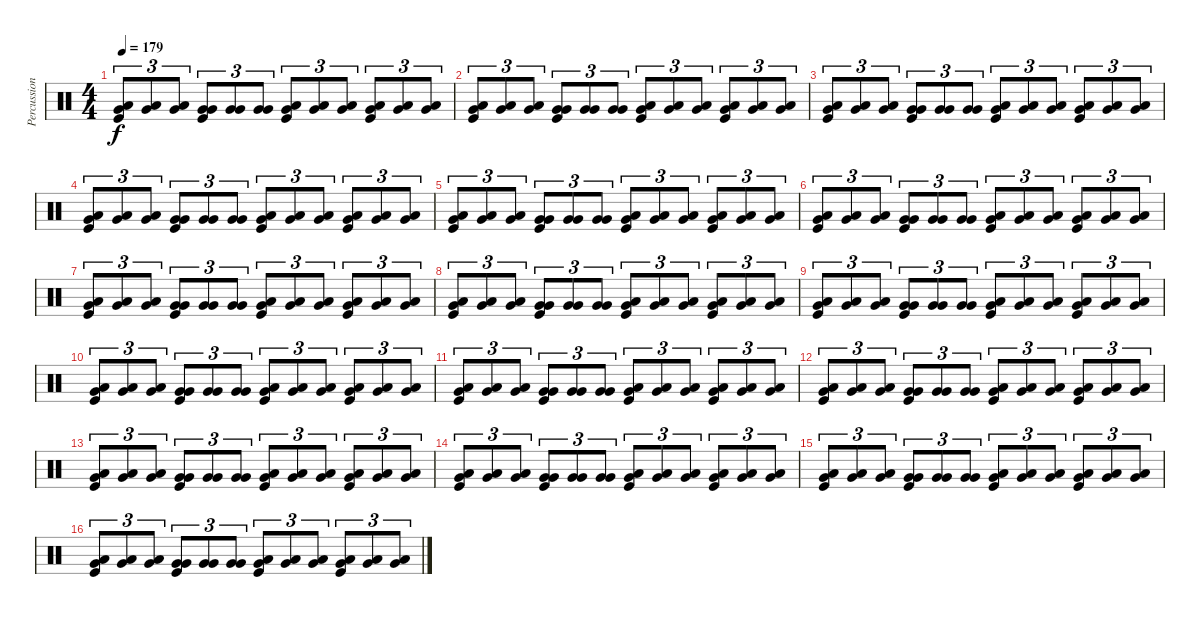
\track ("Percussion" "Percussion") {instrument percussion}
\staff {score}
\articulation defaults
\ts (4 4)
\tempo 179
\clef neutral
\ks c
("Low Tom (hit)" "Very Low Tom (hit)" "Kick (hit)").8{tu (3 2) dy f} ("Low Tom (hit)" "Very Low Tom (hit)").8{tu (3 2)} ("Low Tom (hit)" "Very Low Tom (hit)").8{tu (3 2)} ("Very Low Tom (hit)" "Very Low Tom (hit)" "Kick (hit)").8{tu (3 2)} ("Very Low Tom (hit)" "Very Low Tom (hit)").8{tu (3 2)} ("Very Low Tom (hit)" "Very Low Tom (hit)").8{tu (3 2)} ("Low Tom (hit)" "Very Low Tom (hit)" "Kick (hit)").8{tu (3 2)} ("Low Tom (hit)" "Very Low Tom (hit)").8{tu (3 2)} ("Low Tom (hit)" "Very Low Tom (hit)").8{tu (3 2)} ("Very Low Tom (hit)" "Low Floor Tom (hit)" "Kick (hit)").8{tu (3 2)} ("Very Low Tom (hit)" "Low Floor Tom (hit)").8{tu (3 2)} ("Very Low Tom (hit)" "Low Floor Tom (hit)").8{tu (3 2)} |
("Low Tom (hit)" "Very Low Tom (hit)" "Kick (hit)").8{tu (3 2)} ("Low Tom (hit)" "Very Low Tom (hit)").8{tu (3 2)} ("Low Tom (hit)" "Very Low Tom (hit)").8{tu (3 2)} ("Very Low Tom (hit)" "Very Low Tom (hit)" "Kick (hit)").8{tu (3 2)} ("Very Low Tom (hit)" "Very Low Tom (hit)").8{tu (3 2)} ("Very Low Tom (hit)" "Very Low Tom (hit)").8{tu (3 2)} ("Low Tom (hit)" "Very Low Tom (hit)" "Kick (hit)").8{tu (3 2)} ("Low Tom (hit)" "Very Low Tom (hit)").8{tu (3 2)} ("Low Tom (hit)" "Very Low Tom (hit)").8{tu (3 2)} ("Very Low Tom (hit)" "Low Floor Tom (hit)" "Kick (hit)").8{tu (3 2)} ("Very Low Tom (hit)" "Low Floor Tom (hit)").8{tu (3 2)} ("Very Low Tom (hit)" "Low Floor Tom (hit)").8{tu (3 2)} |
("Low Tom (hit)" "Very Low Tom (hit)" "Kick (hit)").8{tu (3 2)} ("Low Tom (hit)" "Very Low Tom (hit)").8{tu (3 2)} ("Low Tom (hit)" "Very Low Tom (hit)").8{tu (3 2)} ("Very Low Tom (hit)" "Very Low Tom (hit)" "Kick (hit)").8{tu (3 2)} ("Very Low Tom (hit)" "Very Low Tom (hit)").8{tu (3 2)} ("Very Low Tom (hit)" "Very Low Tom (hit)").8{tu (3 2)} ("Low Tom (hit)" "Very Low Tom (hit)" "Kick (hit)").8{tu (3 2)} ("Low Tom (hit)" "Very Low Tom (hit)").8{tu (3 2)} ("Low Tom (hit)" "Very Low Tom (hit)").8{tu (3 2)} ("Very Low Tom (hit)" "Low Floor Tom (hit)" "Kick (hit)").8{tu (3 2)} ("Very Low Tom (hit)" "Low Floor Tom (hit)").8{tu (3 2)} ("Very Low Tom (hit)" "Low Floor Tom (hit)").8{tu (3 2)} |
("Low Tom (hit)" "Very Low Tom (hit)" "Kick (hit)").8{tu (3 2)} ("Low Tom (hit)" "Very Low Tom (hit)").8{tu (3 2)} ("Low Tom (hit)" "Very Low Tom (hit)").8{tu (3 2)} ("Very Low Tom (hit)" "Very Low Tom (hit)" "Kick (hit)").8{tu (3 2)} ("Very Low Tom (hit)" "Very Low Tom (hit)").8{tu (3 2)} ("Very Low Tom (hit)" "Very Low Tom (hit)").8{tu (3 2)} ("Low Tom (hit)" "Very Low Tom (hit)" "Kick (hit)").8{tu (3 2)} ("Low Tom (hit)" "Very Low Tom (hit)").8{tu (3 2)} ("Low Tom (hit)" "Very Low Tom (hit)").8{tu (3 2)} ("Very Low Tom (hit)" "Low Floor Tom (hit)" "Kick (hit)").8{tu (3 2)} ("Very Low Tom (hit)" "Low Floor Tom (hit)").8{tu (3 2)} ("Very Low Tom (hit)" "Low Floor Tom (hit)").8{tu (3 2)} |
("Low Tom (hit)" "Very Low Tom (hit)" "Kick (hit)").8{tu (3 2)} ("Low Tom (hit)" "Very Low Tom (hit)").8{tu (3 2)} ("Low Tom (hit)" "Very Low Tom (hit)").8{tu (3 2)} ("Very Low Tom (hit)" "Very Low Tom (hit)" "Kick (hit)").8{tu (3 2)} ("Very Low Tom (hit)" "Very Low Tom (hit)").8{tu (3 2)} ("Very Low Tom (hit)" "Very Low Tom (hit)").8{tu (3 2)} ("Low Tom (hit)" "Very Low Tom (hit)" "Kick (hit)").8{tu (3 2)} ("Low Tom (hit)" "Very Low Tom (hit)").8{tu (3 2)} ("Low Tom (hit)" "Very Low Tom (hit)").8{tu (3 2)} ("Very Low Tom (hit)" "Low Floor Tom (hit)" "Kick (hit)").8{tu (3 2)} ("Very Low Tom (hit)" "Low Floor Tom (hit)").8{tu (3 2)} ("Very Low Tom (hit)" "Low Floor Tom (hit)").8{tu (3 2)} |
("Low Tom (hit)" "Very Low Tom (hit)" "Kick (hit)").8{tu (3 2)} ("Low Tom (hit)" "Very Low Tom (hit)").8{tu (3 2)} ("Low Tom (hit)" "Very Low Tom (hit)").8{tu (3 2)} ("Very Low Tom (hit)" "Very Low Tom (hit)" "Kick (hit)").8{tu (3 2)} ("Very Low Tom (hit)" "Very Low Tom (hit)").8{tu (3 2)} ("Very Low Tom (hit)" "Very Low Tom (hit)").8{tu (3 2)} ("Low Tom (hit)" "Very Low Tom (hit)" "Kick (hit)").8{tu (3 2)} ("Low Tom (hit)" "Very Low Tom (hit)").8{tu (3 2)} ("Low Tom (hit)" "Very Low Tom (hit)").8{tu (3 2)} ("Very Low Tom (hit)" "Low Floor Tom (hit)" "Kick (hit)").8{tu (3 2)} ("Very Low Tom (hit)" "Low Floor Tom (hit)").8{tu (3 2)} ("Very Low Tom (hit)" "Low Floor Tom (hit)").8{tu (3 2)} |
("Low Tom (hit)" "Very Low Tom (hit)" "Kick (hit)").8{tu (3 2)} ("Low Tom (hit)" "Very Low Tom (hit)").8{tu (3 2)} ("Low Tom (hit)" "Very Low Tom (hit)").8{tu (3 2)} ("Very Low Tom (hit)" "Very Low Tom (hit)" "Kick (hit)").8{tu (3 2)} ("Very Low Tom (hit)" "Very Low Tom (hit)").8{tu (3 2)} ("Very Low Tom (hit)" "Very Low Tom (hit)").8{tu (3 2)} ("Low Tom (hit)" "Very Low Tom (hit)" "Kick (hit)").8{tu (3 2)} ("Low Tom (hit)" "Very Low Tom (hit)").8{tu (3 2)} ("Low Tom (hit)" "Very Low Tom (hit)").8{tu (3 2)} ("Very Low Tom (hit)" "Low Floor Tom (hit)" "Kick (hit)").8{tu (3 2)} ("Very Low Tom (hit)" "Low Floor Tom (hit)").8{tu (3 2)} ("Very Low Tom (hit)" "Low Floor Tom (hit)").8{tu (3 2)} |
("Low Tom (hit)" "Very Low Tom (hit)" "Kick (hit)").8{tu (3 2)} ("Low Tom (hit)" "Very Low Tom (hit)").8{tu (3 2)} ("Low Tom (hit)" "Very Low Tom (hit)").8{tu (3 2)} ("Very Low Tom (hit)" "Very Low Tom (hit)" "Kick (hit)").8{tu (3 2)} ("Very Low Tom (hit)" "Very Low Tom (hit)").8{tu (3 2)} ("Very Low Tom (hit)" "Very Low Tom (hit)").8{tu (3 2)} ("Low Tom (hit)" "Very Low Tom (hit)" "Kick (hit)").8{tu (3 2)} ("Low Tom (hit)" "Very Low Tom (hit)").8{tu (3 2)} ("Low Tom (hit)" "Very Low Tom (hit)").8{tu (3 2)} ("Very Low Tom (hit)" "Low Floor Tom (hit)" "Kick (hit)").8{tu (3 2)} ("Very Low Tom (hit)" "Low Floor Tom (hit)").8{tu (3 2)} ("Very Low Tom (hit)" "Low Floor Tom (hit)").8{tu (3 2)} |
("Low Tom (hit)" "Very Low Tom (hit)" "Kick (hit)").8{tu (3 2)} ("Low Tom (hit)" "Very Low Tom (hit)").8{tu (3 2)} ("Low Tom (hit)" "Very Low Tom (hit)").8{tu (3 2)} ("Very Low Tom (hit)" "Very Low Tom (hit)" "Kick (hit)").8{tu (3 2)} ("Very Low Tom (hit)" "Very Low Tom (hit)").8{tu (3 2)} ("Very Low Tom (hit)" "Very Low Tom (hit)").8{tu (3 2)} ("Low Tom (hit)" "Very Low Tom (hit)" "Kick (hit)").8{tu (3 2)} ("Low Tom (hit)" "Very Low Tom (hit)").8{tu (3 2)} ("Low Tom (hit)" "Very Low Tom (hit)").8{tu (3 2)} ("Very Low Tom (hit)" "Low Floor Tom (hit)" "Kick (hit)").8{tu (3 2)} ("Very Low Tom (hit)" "Low Floor Tom (hit)").8{tu (3 2)} ("Very Low Tom (hit)" "Low Floor Tom (hit)").8{tu (3 2)} |
("Low Tom (hit)" "Very Low Tom (hit)" "Kick (hit)").8{tu (3 2)} ("Low Tom (hit)" "Very Low Tom (hit)").8{tu (3 2)} ("Low Tom (hit)" "Very Low Tom (hit)").8{tu (3 2)} ("Very Low Tom (hit)" "Very Low Tom (hit)" "Kick (hit)").8{tu (3 2)} ("Very Low Tom (hit)" "Very Low Tom (hit)").8{tu (3 2)} ("Very Low Tom (hit)" "Very Low Tom (hit)").8{tu (3 2)} ("Low Tom (hit)" "Very Low Tom (hit)" "Kick (hit)").8{tu (3 2)} ("Low Tom (hit)" "Very Low Tom (hit)").8{tu (3 2)} ("Low Tom (hit)" "Very Low Tom (hit)").8{tu (3 2)} ("Very Low Tom (hit)" "Low Floor Tom (hit)" "Kick (hit)").8{tu (3 2)} ("Very Low Tom (hit)" "Low Floor Tom (hit)").8{tu (3 2)} ("Very Low Tom (hit)" "Low Floor Tom (hit)").8{tu (3 2)} |
("Low Tom (hit)" "Very Low Tom (hit)" "Kick (hit)").8{tu (3 2)} ("Low Tom (hit)" "Very Low Tom (hit)").8{tu (3 2)} ("Low Tom (hit)" "Very Low Tom (hit)").8{tu (3 2)} ("Very Low Tom (hit)" "Very Low Tom (hit)" "Kick (hit)").8{tu (3 2)} ("Very Low Tom (hit)" "Very Low Tom (hit)").8{tu (3 2)} ("Very Low Tom (hit)" "Very Low Tom (hit)").8{tu (3 2)} ("Low Tom (hit)" "Very Low Tom (hit)" "Kick (hit)").8{tu (3 2)} ("Low Tom (hit)" "Very Low Tom (hit)").8{tu (3 2)} ("Low Tom (hit)" "Very Low Tom (hit)").8{tu (3 2)} ("Very Low Tom (hit)" "Low Floor Tom (hit)" "Kick (hit)").8{tu (3 2)} ("Very Low Tom (hit)" "Low Floor Tom (hit)").8{tu (3 2)} ("Very Low Tom (hit)" "Low Floor Tom (hit)").8{tu (3 2)} |
("Low Tom (hit)" "Very Low Tom (hit)" "Kick (hit)").8{tu (3 2)} ("Low Tom (hit)" "Very Low Tom (hit)").8{tu (3 2)} ("Low Tom (hit)" "Very Low Tom (hit)").8{tu (3 2)} ("Very Low Tom (hit)" "Very Low Tom (hit)" "Kick (hit)").8{tu (3 2)} ("Very Low Tom (hit)" "Very Low Tom (hit)").8{tu (3 2)} ("Very Low Tom (hit)" "Very Low Tom (hit)").8{tu (3 2)} ("Low Tom (hit)" "Very Low Tom (hit)" "Kick (hit)").8{tu (3 2)} ("Low Tom (hit)" "Very Low Tom (hit)").8{tu (3 2)} ("Low Tom (hit)" "Very Low Tom (hit)").8{tu (3 2)} ("Very Low Tom (hit)" "Low Floor Tom (hit)" "Kick (hit)").8{tu (3 2)} ("Very Low Tom (hit)" "Low Floor Tom (hit)").8{tu (3 2)} ("Very Low Tom (hit)" "Low Floor Tom (hit)").8{tu (3 2)} |
("Low Tom (hit)" "Very Low Tom (hit)" "Kick (hit)").8{tu (3 2)} ("Low Tom (hit)" "Very Low Tom (hit)").8{tu (3 2)} ("Low Tom (hit)" "Very Low Tom (hit)").8{tu (3 2)} ("Very Low Tom (hit)" "Very Low Tom (hit)" "Kick (hit)").8{tu (3 2)} ("Very Low Tom (hit)" "Very Low Tom (hit)").8{tu (3 2)} ("Very Low Tom (hit)" "Very Low Tom (hit)").8{tu (3 2)} ("Low Tom (hit)" "Very Low Tom (hit)" "Kick (hit)").8{tu (3 2)} ("Low Tom (hit)" "Very Low Tom (hit)").8{tu (3 2)} ("Low Tom (hit)" "Very Low Tom (hit)").8{tu (3 2)} ("Very Low Tom (hit)" "Low Floor Tom (hit)" "Kick (hit)").8{tu (3 2)} ("Very Low Tom (hit)" "Low Floor Tom (hit)").8{tu (3 2)} ("Very Low Tom (hit)" "Low Floor Tom (hit)").8{tu (3 2)} |
("Low Tom (hit)" "Very Low Tom (hit)" "Kick (hit)").8{tu (3 2)} ("Low Tom (hit)" "Very Low Tom (hit)").8{tu (3 2)} ("Low Tom (hit)" "Very Low Tom (hit)").8{tu (3 2)} ("Very Low Tom (hit)" "Very Low Tom (hit)" "Kick (hit)").8{tu (3 2)} ("Very Low Tom (hit)" "Very Low Tom (hit)").8{tu (3 2)} ("Very Low Tom (hit)" "Very Low Tom (hit)").8{tu (3 2)} ("Low Tom (hit)" "Very Low Tom (hit)" "Kick (hit)").8{tu (3 2)} ("Low Tom (hit)" "Very Low Tom (hit)").8{tu (3 2)} ("Low Tom (hit)" "Very Low Tom (hit)").8{tu (3 2)} ("Very Low Tom (hit)" "Low Floor Tom (hit)" "Kick (hit)").8{tu (3 2)} ("Very Low Tom (hit)" "Low Floor Tom (hit)").8{tu (3 2)} ("Very Low Tom (hit)" "Low Floor Tom (hit)").8{tu (3 2)} |
("Low Tom (hit)" "Very Low Tom (hit)" "Kick (hit)").8{tu (3 2)} ("Low Tom (hit)" "Very Low Tom (hit)").8{tu (3 2)} ("Low Tom (hit)" "Very Low Tom (hit)").8{tu (3 2)} ("Very Low Tom (hit)" "Very Low Tom (hit)" "Kick (hit)").8{tu (3 2)} ("Very Low Tom (hit)" "Very Low Tom (hit)").8{tu (3 2)} ("Very Low Tom (hit)" "Very Low Tom (hit)").8{tu (3 2)} ("Low Tom (hit)" "Very Low Tom (hit)" "Kick (hit)").8{tu (3 2)} ("Low Tom (hit)" "Very Low Tom (hit)").8{tu (3 2)} ("Low Tom (hit)" "Very Low Tom (hit)").8{tu (3 2)} ("Very Low Tom (hit)" "Low Floor Tom (hit)" "Kick (hit)").8{tu (3 2)} ("Very Low Tom (hit)" "Low Floor Tom (hit)").8{tu (3 2)} ("Very Low Tom (hit)" "Low Floor Tom (hit)").8{tu (3 2)} |
("Low Tom (hit)" "Very Low Tom (hit)" "Kick (hit)").8{tu (3 2)} ("Low Tom (hit)" "Very Low Tom (hit)").8{tu (3 2)} ("Low Tom (hit)" "Very Low Tom (hit)").8{tu (3 2)} ("Very Low Tom (hit)" "Very Low Tom (hit)" "Kick (hit)").8{tu (3 2)} ("Very Low Tom (hit)" "Very Low Tom (hit)").8{tu (3 2)} ("Very Low Tom (hit)" "Very Low Tom (hit)").8{tu (3 2)} ("Low Tom (hit)" "Very Low Tom (hit)" "Kick (hit)").8{tu (3 2)} ("Low Tom (hit)" "Very Low Tom (hit)").8{tu (3 2)} ("Low Tom (hit)" "Very Low Tom (hit)").8{tu (3 2)} ("Very Low Tom (hit)" "Low Floor Tom (hit)" "Kick (hit)").8{tu (3 2)} ("Very Low Tom (hit)" "Low Floor Tom (hit)").8{tu (3 2)} ("Very Low Tom (hit)" "Low Floor Tom (hit)").8{tu (3 2)}
